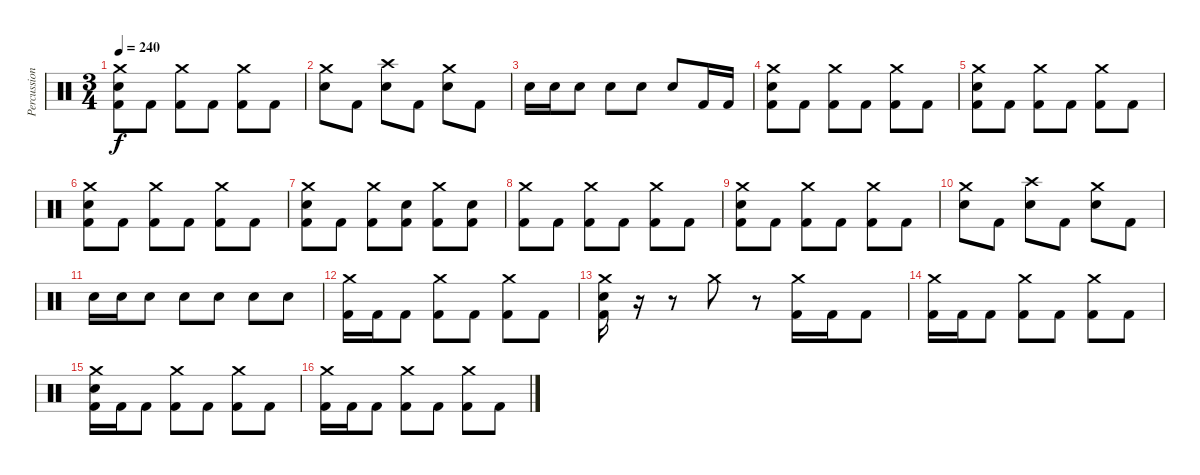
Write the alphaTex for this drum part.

\track ("Percussion" "Percussion") {instrument percussion}
\staff {score}
\articulation defaults
\ts (3 4)
\tempo 240
\clef neutral
\ks c
("Crash medium (hit)" "Electric Snare (hit)" "Kick (hit) 2").8{dy f} "Kick (hit) 2".8 ("Crash medium (hit)" "Kick (hit) 2").8 "Kick (hit) 2".8 ("Crash medium (hit)" "Kick (hit) 2").8 "Kick (hit) 2".8 |
("Crash medium (hit)" "Electric Snare (hit)").8 "Kick (hit) 2".8 ("Crash high (hit)" "Electric Snare (hit)").8 "Kick (hit) 2".8 ("Crash medium (hit)" "Electric Snare (hit)").8 "Kick (hit) 2".8 |
"Electric Snare (hit)".16 "Electric Snare (hit)".16 "Electric Snare (hit)".8 "Electric Snare (hit)".8 "Electric Snare (hit)".8 "Electric Snare (hit)".8 "Kick (hit) 2".16 "Kick (hit) 2".16 |
("Crash medium (hit)" "Electric Snare (hit)" "Kick (hit) 2").8 "Kick (hit) 2".8 ("Crash medium (hit)" "Kick (hit) 2").8 "Kick (hit) 2".8 ("Crash medium (hit)" "Kick (hit) 2").8 "Kick (hit) 2".8 |
("Crash medium (hit)" "Electric Snare (hit)" "Kick (hit) 2").8 "Kick (hit) 2".8 ("Crash medium (hit)" "Kick (hit) 2").8 "Kick (hit) 2".8 ("Crash medium (hit)" "Kick (hit) 2").8 "Kick (hit) 2".8 |
("Crash medium (hit)" "Electric Snare (hit)" "Kick (hit) 2").8 "Kick (hit) 2".8 ("Crash medium (hit)" "Kick (hit) 2").8 "Kick (hit) 2".8 ("Crash medium (hit)" "Kick (hit) 2").8 "Kick (hit) 2".8 |
("Crash medium (hit)" "Electric Snare (hit)" "Kick (hit) 2").8 "Kick (hit) 2".8 ("Crash medium (hit)" "Kick (hit) 2").8 ("Electric Snare (hit)" "Kick (hit) 2").8 ("Crash medium (hit)" "Kick (hit) 2").8 ("Electric Snare (hit)" "Kick (hit) 2").8 |
("Crash medium (hit)" "Kick (hit) 2").8 "Kick (hit) 2".8 ("Crash medium (hit)" "Kick (hit) 2").8 "Kick (hit) 2".8 ("Crash medium (hit)" "Kick (hit) 2").8 "Kick (hit) 2".8 |
("Crash medium (hit)" "Electric Snare (hit)" "Kick (hit) 2").8 "Kick (hit) 2".8 ("Crash medium (hit)" "Kick (hit) 2").8 "Kick (hit) 2".8 ("Crash medium (hit)" "Kick (hit) 2").8 "Kick (hit) 2".8 |
("Crash medium (hit)" "Electric Snare (hit)").8 "Kick (hit) 2".8 ("Crash high (hit)" "Electric Snare (hit)").8 "Kick (hit) 2".8 ("Crash medium (hit)" "Electric Snare (hit)").8 "Kick (hit) 2".8 |
"Electric Snare (hit)".16 "Electric Snare (hit)".16 "Electric Snare (hit)".8 "Electric Snare (hit)".8 "Electric Snare (hit)".8 "Electric Snare (hit)".8 "Electric Snare (hit)".8 |
("Crash medium (hit)" "Kick (hit) 2").16 "Kick (hit) 2".16 "Kick (hit) 2".8 ("Crash medium (hit)" "Kick (hit) 2").8 "Kick (hit) 2".8 ("Crash medium (hit)" "Kick (hit) 2").8 "Kick (hit) 2".8 |
("Crash medium (hit)" "Electric Snare (hit)" "Kick (hit) 2").16 r.16 r.8 "Crash medium (hit)".8 r.8 ("Crash medium (hit)" "Kick (hit) 2").16 "Kick (hit) 2".16 "Kick (hit) 2".8 |
("Crash medium (hit)" "Kick (hit) 2").16 "Kick (hit) 2".16 "Kick (hit) 2".8 ("Crash medium (hit)" "Kick (hit) 2").8 "Kick (hit) 2".8 ("Crash medium (hit)" "Kick (hit) 2").8 "Kick (hit) 2".8 |
("Crash medium (hit)" "Electric Snare (hit)" "Kick (hit) 2").16 "Kick (hit) 2".16 "Kick (hit) 2".8 ("Crash medium (hit)" "Kick (hit) 2").8 "Kick (hit) 2".8 ("Crash medium (hit)" "Kick (hit) 2").8 "Kick (hit) 2".8 |
("Crash medium (hit)" "Kick (hit) 2").16 "Kick (hit) 2".16 "Kick (hit) 2".8 ("Crash medium (hit)" "Kick (hit) 2").8 "Kick (hit) 2".8 ("Crash medium (hit)" "Kick (hit) 2").8 "Kick (hit) 2".8
